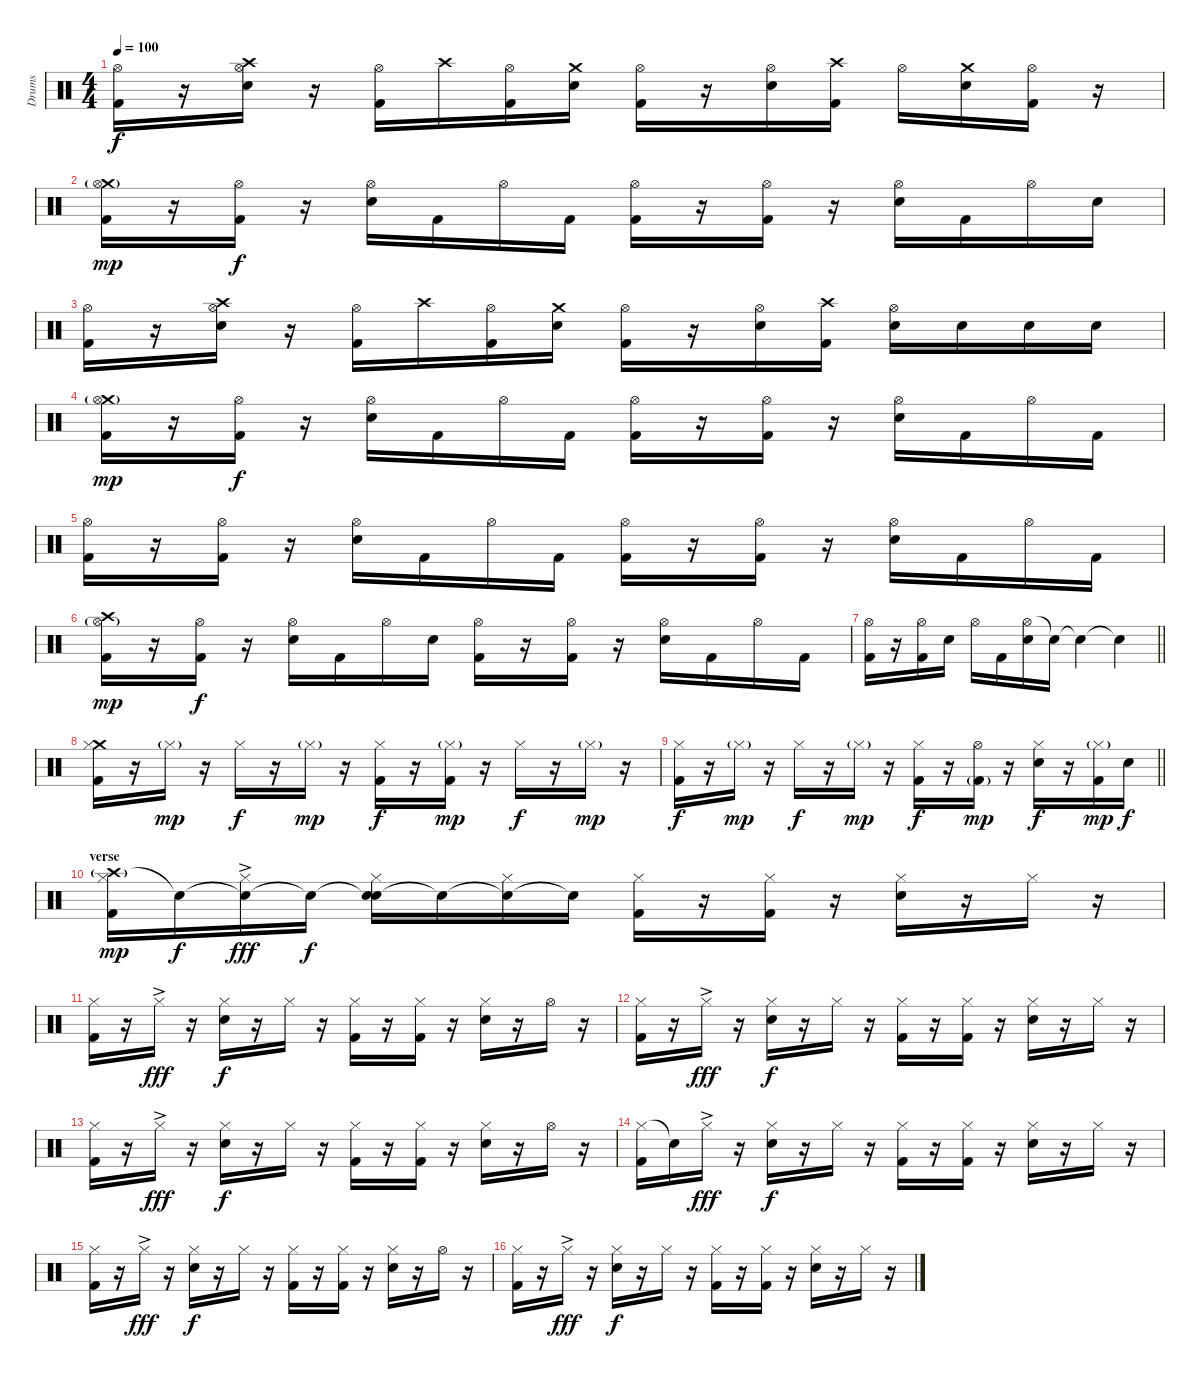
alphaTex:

\track ("Drums" "Drums") {instrument percussion}
\staff {score}
\articulation defaults
\ts (4 4)
\tempo 100
\clef neutral
\ks c
("Hi-Hat (open)" "Kick (hit) 2").16{dy f} r.16 ("Crash high (hit)" "Hi-Hat (open)" "Snare (hit) 2").16 r.16 ("Hi-Hat (open)" "Kick (hit) 2").16 "Crash high (hit)".16 ("Hi-Hat (open)" "Kick (hit) 2").16 ("Crash medium (hit)" "Snare (hit) 2").16 ("Hi-Hat (open)" "Kick (hit) 2").16 r.16 ("Hi-Hat (open)" "Snare (hit) 2").16 ("Crash high (hit)" "Kick (hit) 2").16 "Hi-Hat (open)".16 ("Crash medium (hit)" "Snare (hit) 2").16 ("Hi-Hat (open)" "Kick (hit) 2").16 r.16 |
("Crash medium (hit)" "Hi-Hat (open)"{g} "Kick (hit) 2").16{dy mp} r.16 ("Hi-Hat (open)" "Kick (hit) 2").16{dy f} r.16 ("Hi-Hat (open)" "Snare (hit) 2").16 "Kick (hit) 2".16 "Hi-Hat (open)".16 "Kick (hit) 2".16 ("Hi-Hat (open)" "Kick (hit) 2").16 r.16 ("Hi-Hat (open)" "Kick (hit) 2").16 r.16 ("Hi-Hat (open)" "Snare (hit) 2").16 "Kick (hit) 2".16 "Hi-Hat (open)".16 "Snare (hit) 2".16 |
("Hi-Hat (open)" "Kick (hit) 2").16 r.16 ("Crash high (hit)" "Hi-Hat (open)" "Snare (hit) 2").16 r.16 ("Hi-Hat (open)" "Kick (hit) 2").16 "Crash high (hit)".16 ("Hi-Hat (open)" "Kick (hit) 2").16 ("Crash medium (hit)" "Snare (hit) 2").16 ("Hi-Hat (open)" "Kick (hit) 2").16 r.16 ("Hi-Hat (open)" "Snare (hit) 2").16 ("Crash high (hit)" "Kick (hit) 2").16 ("Hi-Hat (open)" "Snare (hit) 2").16 "Snare (hit) 2".16 "Snare (hit) 2".16 "Snare (hit) 2".16 |
("Crash medium (hit)" "Hi-Hat (open)"{g} "Kick (hit) 2").16{dy mp} r.16 ("Hi-Hat (open)" "Kick (hit) 2").16{dy f} r.16 ("Hi-Hat (open)" "Snare (hit) 2").16 "Kick (hit) 2".16 "Hi-Hat (open)".16 "Kick (hit) 2".16 ("Hi-Hat (open)" "Kick (hit) 2").16 r.16 ("Hi-Hat (open)" "Kick (hit) 2").16 r.16 ("Hi-Hat (open)" "Snare (hit) 2").16 "Kick (hit) 2".16 "Hi-Hat (open)".16 "Kick (hit) 2".16 |
("Hi-Hat (open)" "Kick (hit) 2").16 r.16 ("Hi-Hat (open)" "Kick (hit) 2").16 r.16 ("Hi-Hat (open)" "Snare (hit) 2").16 "Kick (hit) 2".16 "Hi-Hat (open)".16 "Kick (hit) 2".16 ("Hi-Hat (open)" "Kick (hit) 2").16 r.16 ("Hi-Hat (open)" "Kick (hit) 2").16 r.16 ("Hi-Hat (open)" "Snare (hit) 2").16 "Kick (hit) 2".16 "Hi-Hat (open)".16 "Kick (hit) 2".16 |
("Crash high (hit)" "Hi-Hat (open)"{g} "Kick (hit) 2").16{dy mp} r.16 ("Hi-Hat (open)" "Kick (hit) 2").16{dy f} r.16 ("Hi-Hat (open)" "Snare (hit) 2").16 "Kick (hit) 2".16 "Hi-Hat (open)".16 "Snare (hit) 2".16 ("Hi-Hat (open)" "Kick (hit) 2").16 r.16 ("Hi-Hat (open)" "Kick (hit) 2").16 r.16 ("Hi-Hat (open)" "Snare (hit) 2").16 "Kick (hit) 2".16 "Hi-Hat (open)".16 "Kick (hit) 2".16 |
\barLineRight lightlight
("Hi-Hat (open)" "Kick (hit) 2").16 r.16 ("Hi-Hat (open)" "Kick (hit) 2").16 "Snare (hit) 2".16 "Hi-Hat (open)".16 "Kick (hit) 2".16 ("Hi-Hat (open)" "Snare (hit) 2").16 "Snare (hit)"{t}.16 "Snare (hit)"{t}.4 "Snare (hit)"{t}.4 |
("Crash medium (hit)" "Hi-Hat (closed)" "Kick (hit) 2").16 r.16 "Hi-Hat (closed)"{g}.16{dy mp} r.16 "Hi-Hat (closed)".16{dy f} r.16 "Hi-Hat (closed)"{g}.16{dy mp} r.16 ("Hi-Hat (closed)" "Kick (hit) 2").16{dy f} r.16 ("Hi-Hat (closed)"{g} "Kick (hit) 2").16{dy mp} r.16 "Hi-Hat (closed)".16{dy f} r.16 "Hi-Hat (closed)"{g}.16{dy mp} r.16 |
\barLineRight lightlight
("Hi-Hat (closed)" "Kick (hit) 2").16{dy f} r.16 "Hi-Hat (closed)"{g}.16{dy mp} r.16 "Hi-Hat (closed)".16{dy f} r.16 "Hi-Hat (closed)"{g}.16{dy mp} r.16 ("Hi-Hat (closed)" "Kick (hit) 2").16{dy f} r.16 ("Hi-Hat (open)" "Kick (hit) 2"{g}).16{dy mp} r.16 ("Hi-Hat (closed)" "Snare (hit) 2").16{dy f} r.16 ("Hi-Hat (closed)"{g} "Kick (hit) 2").16{dy mp} "Snare (hit) 2".16{dy f} |
\section ("" "verse")
("Crash high (hit)"{g} "Hi-Hat (closed)" "Kick (hit) 2").16{dy mp} "Snare (hit)"{t}.16{dy f} ("Snare (hit)"{t} "Hi-Hat (closed)"{ac}).16{dy fff} "Snare (hit)"{t}.16{dy f} ("Snare (hit)"{t} "Hi-Hat (closed)" "Snare (hit) 2").16 "Snare (hit)"{t}.16 ("Snare (hit)"{t} "Hi-Hat (closed)").16 "Snare (hit)"{t}.16 ("Hi-Hat (closed)" "Kick (hit) 2").16 r.16 ("Hi-Hat (closed)" "Kick (hit) 2").16 r.16 ("Hi-Hat (closed)" "Snare (hit) 2").16 r.16 "Hi-Hat (closed)".16 r.16 |
("Hi-Hat (closed)" "Kick (hit) 2").16 r.16 "Hi-Hat (closed)"{ac}.16{dy fff} r.16 ("Hi-Hat (closed)" "Snare (hit) 2").16{dy f} r.16 "Hi-Hat (closed)".16 r.16 ("Hi-Hat (closed)" "Kick (hit) 2").16 r.16 ("Hi-Hat (closed)" "Kick (hit) 2").16 r.16 ("Hi-Hat (closed)" "Snare (hit) 2").16 r.16 "Hi-Hat (open)".16 r.16 |
("Hi-Hat (closed)" "Kick (hit) 2").16 r.16 "Hi-Hat (closed)"{ac}.16{dy fff} r.16 ("Hi-Hat (closed)" "Snare (hit) 2").16{dy f} r.16 "Hi-Hat (closed)".16 r.16 ("Hi-Hat (closed)" "Kick (hit) 2").16 r.16 ("Hi-Hat (closed)" "Kick (hit) 2").16 r.16 ("Hi-Hat (closed)" "Snare (hit) 2").16 r.16 "Hi-Hat (closed)".16 r.16 |
("Hi-Hat (closed)" "Kick (hit) 2").16 r.16 "Hi-Hat (closed)"{ac}.16{dy fff} r.16 ("Hi-Hat (closed)" "Snare (hit) 2").16{dy f} r.16 "Hi-Hat (closed)".16 r.16 ("Hi-Hat (closed)" "Kick (hit) 2").16 r.16 ("Hi-Hat (closed)" "Kick (hit) 2").16 r.16 ("Hi-Hat (closed)" "Snare (hit) 2").16 r.16 "Hi-Hat (open)".16 r.16 |
("Hi-Hat (closed)" "Kick (hit) 2").16 "Snare (hit)"{t}.16 "Hi-Hat (closed)"{ac}.16{dy fff} r.16 ("Hi-Hat (closed)" "Snare (hit) 2").16{dy f} r.16 "Hi-Hat (closed)".16 r.16 ("Hi-Hat (closed)" "Kick (hit) 2").16 r.16 ("Hi-Hat (closed)" "Kick (hit) 2").16 r.16 ("Hi-Hat (closed)" "Snare (hit) 2").16 r.16 "Hi-Hat (closed)".16 r.16 |
("Hi-Hat (closed)" "Kick (hit) 2").16 r.16 "Hi-Hat (closed)"{ac}.16{dy fff} r.16 ("Hi-Hat (closed)" "Snare (hit) 2").16{dy f} r.16 "Hi-Hat (closed)".16 r.16 ("Hi-Hat (closed)" "Kick (hit) 2").16 r.16 ("Hi-Hat (closed)" "Kick (hit) 2").16 r.16 ("Hi-Hat (closed)" "Snare (hit) 2").16 r.16 "Hi-Hat (open)".16 r.16 |
("Hi-Hat (closed)" "Kick (hit) 2").16 r.16 "Hi-Hat (closed)"{ac}.16{dy fff} r.16 ("Hi-Hat (closed)" "Snare (hit) 2").16{dy f} r.16 "Hi-Hat (closed)".16 r.16 ("Hi-Hat (closed)" "Kick (hit) 2").16 r.16 ("Hi-Hat (closed)" "Kick (hit) 2").16 r.16 ("Hi-Hat (closed)" "Snare (hit) 2").16 r.16 "Hi-Hat (closed)".16 r.16
